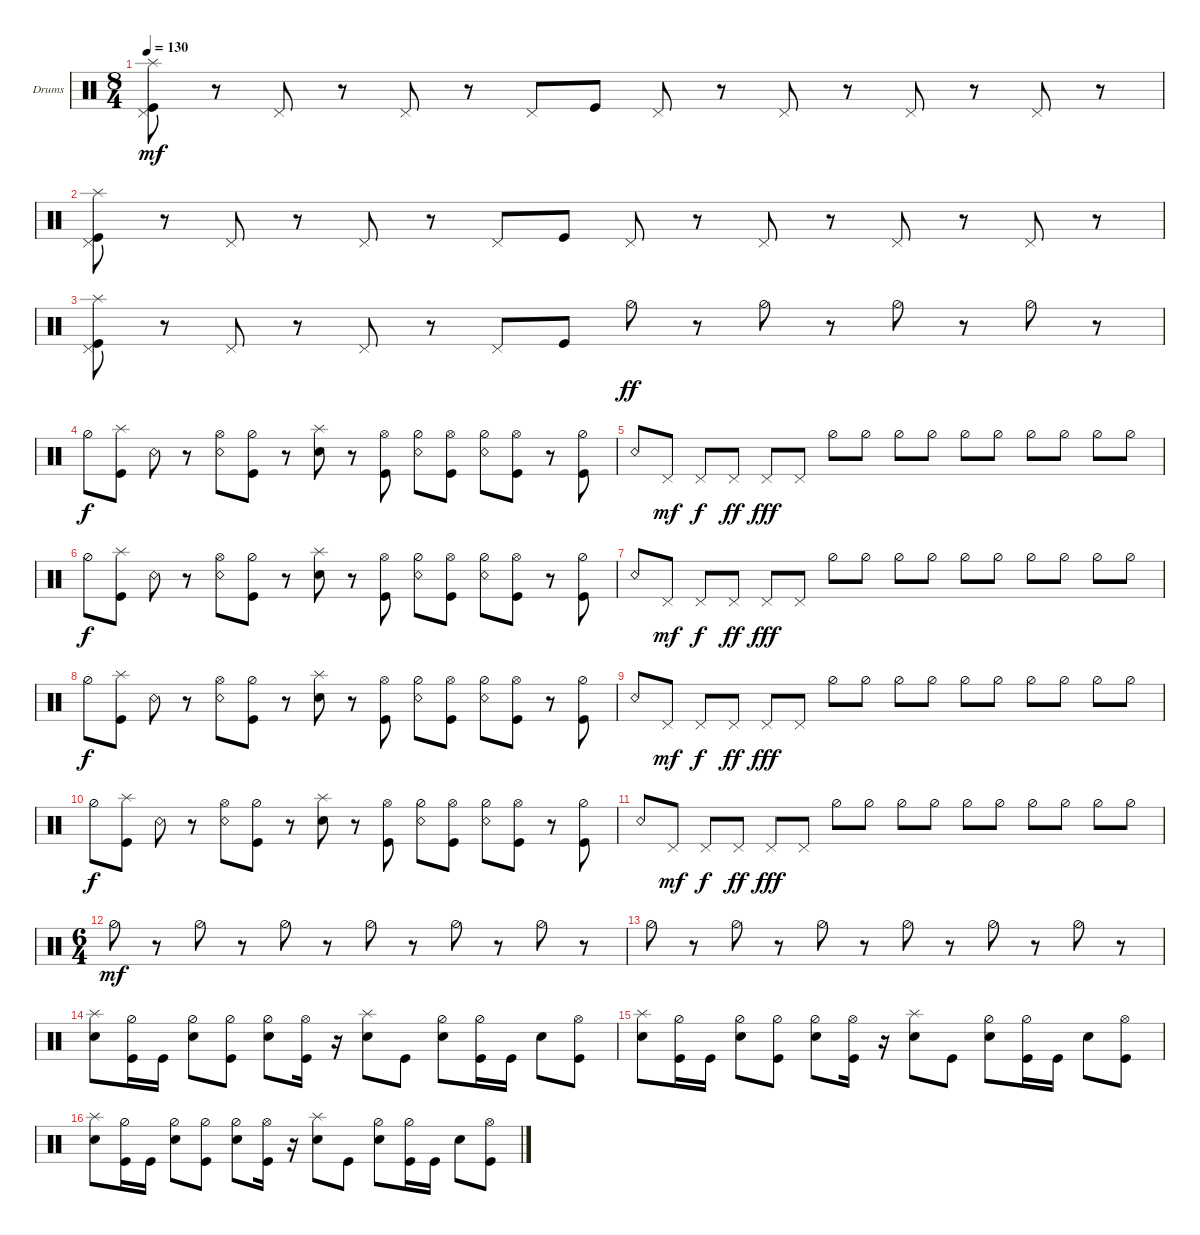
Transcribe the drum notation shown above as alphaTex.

\bracketExtendMode groupsimilarinstruments
\firstSystemTrackNameOrientation horizontal
\otherSystemsTrackNameOrientation horizontal
\track ("Drumkit" "Drums") {instrument percussion}
\staff {score}
\articulation defaults
\ts (8 4)
\tempo 130
\clef neutral
\ks c
("Kick (hit)" "Pedal Hi-Hat (hit)" "Splash (hit)").8{dy mf} r.8 "Pedal Hi-Hat (hit)".8 r.8 "Pedal Hi-Hat (hit)".8 r.8 "Pedal Hi-Hat (hit)".8 "Kick (hit)".8 "Pedal Hi-Hat (hit)".8 r.8 "Pedal Hi-Hat (hit)".8 r.8 "Pedal Hi-Hat (hit)".8 r.8 "Pedal Hi-Hat (hit)".8 r.8 |
("Kick (hit)" "Pedal Hi-Hat (hit)" "Splash (hit)").8 r.8 "Pedal Hi-Hat (hit)".8 r.8 "Pedal Hi-Hat (hit)".8 r.8 "Pedal Hi-Hat (hit)".8 "Kick (hit)".8 "Pedal Hi-Hat (hit)".8 r.8 "Pedal Hi-Hat (hit)".8 r.8 "Pedal Hi-Hat (hit)".8 r.8 "Pedal Hi-Hat (hit)".8 r.8 |
("Kick (hit)" "Pedal Hi-Hat (hit)" "Splash (hit)").8 r.8 "Pedal Hi-Hat (hit)".8 r.8 "Pedal Hi-Hat (hit)".8 r.8 "Pedal Hi-Hat (hit)".8 "Kick (hit)".8 "Hi-Hat (half)".8{dy ff} r.8 "Hi-Hat (half)".8 r.8 "Hi-Hat (half)".8 r.8 "Hi-Hat (half)".8 r.8 |
"Hi-Hat (half)".8{dy f} ("Kick (hit)" "Splash (hit)").8 "Snare (rim shot)".8 r.8 ("Snare (rim shot)" "Hi-Hat (open)").8 ("Kick (hit)" "Hi-Hat (half)").8 r.8 ("Snare (hit) 2" "Splash (hit)").8 r.8 ("Kick (hit)" "Hi-Hat (open)").8 ("Snare (rim shot)" "Hi-Hat (half)").8 ("Kick (hit)" "Hi-Hat (open)").8 ("Snare (rim shot)" "Hi-Hat (half)").8 ("Kick (hit)" "Hi-Hat (open)").8 r.8 ("Kick (hit)" "Hi-Hat (half)").8 |
"Snare (rim shot)".8 "Pedal Hi-Hat (hit)".8{dy mf} "Pedal Hi-Hat (hit)".8{dy f} "Pedal Hi-Hat (hit)".8{dy ff} "Pedal Hi-Hat (hit)".8{dy fff} "Pedal Hi-Hat (hit)".8 "Hi-Hat (half)".8 "Hi-Hat (half)".8 "Hi-Hat (half)".8 "Hi-Hat (half)".8 "Hi-Hat (half)".8 "Hi-Hat (half)".8 "Hi-Hat (half)".8 "Hi-Hat (half)".8 "Hi-Hat (half)".8 "Hi-Hat (half)".8 |
"Hi-Hat (half)".8{dy f} ("Kick (hit)" "Splash (hit)").8 "Snare (rim shot)".8 r.8 ("Snare (rim shot)" "Hi-Hat (open)").8 ("Kick (hit)" "Hi-Hat (half)").8 r.8 ("Snare (hit) 2" "Splash (hit)").8 r.8 ("Kick (hit)" "Hi-Hat (open)").8 ("Snare (rim shot)" "Hi-Hat (half)").8 ("Kick (hit)" "Hi-Hat (open)").8 ("Snare (rim shot)" "Hi-Hat (half)").8 ("Kick (hit)" "Hi-Hat (open)").8 r.8 ("Kick (hit)" "Hi-Hat (half)").8 |
"Snare (rim shot)".8 "Pedal Hi-Hat (hit)".8{dy mf} "Pedal Hi-Hat (hit)".8{dy f} "Pedal Hi-Hat (hit)".8{dy ff} "Pedal Hi-Hat (hit)".8{dy fff} "Pedal Hi-Hat (hit)".8 "Hi-Hat (half)".8 "Hi-Hat (half)".8 "Hi-Hat (half)".8 "Hi-Hat (half)".8 "Hi-Hat (half)".8 "Hi-Hat (half)".8 "Hi-Hat (half)".8 "Hi-Hat (half)".8 "Hi-Hat (half)".8 "Hi-Hat (half)".8 |
"Hi-Hat (half)".8{dy f} ("Kick (hit)" "Splash (hit)").8 "Snare (rim shot)".8 r.8 ("Snare (rim shot)" "Hi-Hat (open)").8 ("Kick (hit)" "Hi-Hat (half)").8 r.8 ("Snare (hit) 2" "Splash (hit)").8 r.8 ("Kick (hit)" "Hi-Hat (open)").8 ("Snare (rim shot)" "Hi-Hat (half)").8 ("Kick (hit)" "Hi-Hat (open)").8 ("Snare (rim shot)" "Hi-Hat (half)").8 ("Kick (hit)" "Hi-Hat (open)").8 r.8 ("Kick (hit)" "Hi-Hat (half)").8 |
"Snare (rim shot)".8 "Pedal Hi-Hat (hit)".8{dy mf} "Pedal Hi-Hat (hit)".8{dy f} "Pedal Hi-Hat (hit)".8{dy ff} "Pedal Hi-Hat (hit)".8{dy fff} "Pedal Hi-Hat (hit)".8 "Hi-Hat (half)".8 "Hi-Hat (half)".8 "Hi-Hat (half)".8 "Hi-Hat (half)".8 "Hi-Hat (half)".8 "Hi-Hat (half)".8 "Hi-Hat (half)".8 "Hi-Hat (half)".8 "Hi-Hat (half)".8 "Hi-Hat (half)".8 |
"Hi-Hat (half)".8{dy f} ("Kick (hit)" "Splash (hit)").8 "Snare (rim shot)".8 r.8 ("Snare (rim shot)" "Hi-Hat (open)").8 ("Kick (hit)" "Hi-Hat (half)").8 r.8 ("Snare (hit) 2" "Splash (hit)").8 r.8 ("Kick (hit)" "Hi-Hat (open)").8 ("Snare (rim shot)" "Hi-Hat (half)").8 ("Kick (hit)" "Hi-Hat (open)").8 ("Snare (rim shot)" "Hi-Hat (half)").8 ("Kick (hit)" "Hi-Hat (open)").8 r.8 ("Kick (hit)" "Hi-Hat (half)").8 |
"Snare (rim shot)".8 "Pedal Hi-Hat (hit)".8{dy mf} "Pedal Hi-Hat (hit)".8{dy f} "Pedal Hi-Hat (hit)".8{dy ff} "Pedal Hi-Hat (hit)".8{dy fff} "Pedal Hi-Hat (hit)".8 "Hi-Hat (half)".8 "Hi-Hat (half)".8 "Hi-Hat (half)".8 "Hi-Hat (half)".8 "Hi-Hat (half)".8 "Hi-Hat (half)".8 "Hi-Hat (half)".8 "Hi-Hat (half)".8 "Hi-Hat (half)".8 "Hi-Hat (half)".8 |
\ts (6 4)
"Hi-Hat (half)".8{dy mf} r.8 "Hi-Hat (half)".8 r.8 "Hi-Hat (half)".8 r.8 "Hi-Hat (half)".8 r.8 "Hi-Hat (half)".8 r.8 "Hi-Hat (half)".8 r.8 |
"Hi-Hat (half)".8 r.8 "Hi-Hat (half)".8 r.8 "Hi-Hat (half)".8 r.8 "Hi-Hat (half)".8 r.8 "Hi-Hat (half)".8 r.8 "Hi-Hat (half)".8 r.8 |
("Splash (hit)" "Snare (hit) 2").8 ("Kick (hit)" "Hi-Hat (half)").16 "Kick (hit)".16 ("Hi-Hat (half)" "Snare (hit) 2").8 ("Kick (hit)" "Hi-Hat (half)").8 ("Snare (hit) 2" "Hi-Hat (half)").8 ("Kick (hit)" "Hi-Hat (open)").16 r.16 ("Splash (hit)" "Snare (hit) 2").8 "Kick (hit)".8 ("Hi-Hat (half)" "Snare (hit) 2").8 ("Hi-Hat (half)" "Kick (hit)").16 "Kick (hit)".16 "Snare (hit) 2".8 ("Kick (hit)" "Hi-Hat (open)").8 |
("Splash (hit)" "Snare (hit) 2").8 ("Kick (hit)" "Hi-Hat (half)").16 "Kick (hit)".16 ("Hi-Hat (half)" "Snare (hit) 2").8 ("Kick (hit)" "Hi-Hat (half)").8 ("Snare (hit) 2" "Hi-Hat (half)").8 ("Kick (hit)" "Hi-Hat (open)").16 r.16 ("Splash (hit)" "Snare (hit) 2").8 "Kick (hit)".8 ("Hi-Hat (half)" "Snare (hit) 2").8 ("Hi-Hat (half)" "Kick (hit)").16 "Kick (hit)".16 "Snare (hit) 2".8 ("Kick (hit)" "Hi-Hat (open)").8 |
("Splash (hit)" "Snare (hit) 2").8 ("Kick (hit)" "Hi-Hat (half)").16 "Kick (hit)".16 ("Hi-Hat (half)" "Snare (hit) 2").8 ("Kick (hit)" "Hi-Hat (half)").8 ("Snare (hit) 2" "Hi-Hat (half)").8 ("Kick (hit)" "Hi-Hat (open)").16 r.16 ("Splash (hit)" "Snare (hit) 2").8 "Kick (hit)".8 ("Hi-Hat (half)" "Snare (hit) 2").8 ("Hi-Hat (half)" "Kick (hit)").16 "Kick (hit)".16 "Snare (hit) 2".8 ("Kick (hit)" "Hi-Hat (open)").8
